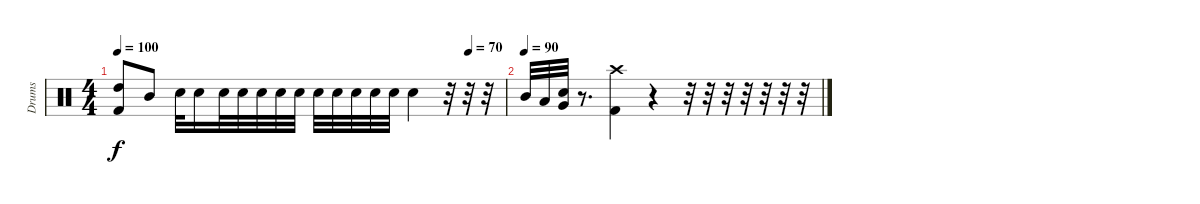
\track ("Drums" "Drums") {instrument percussion}
\staff {score}
\articulation defaults
\ts (4 4)
\tempo (70 0.90625)
\tempo 100
\clef neutral
\ks c
("Kick (hit) 2" "High Tom (hit)").8{dy f} "Mid Tom (hit)".8 "Electric Snare (hit)".32 "Electric Snare (hit)".16 "Electric Snare (hit)".32 "Electric Snare (hit)".32 "Electric Snare (hit)".32 "Electric Snare (hit)".32 "Electric Snare (hit)".32 "Electric Snare (hit)".32 "Electric Snare (hit)".32 "Electric Snare (hit)".32 "Electric Snare (hit)".32 "Electric Snare (hit)".32 "Electric Snare (hit)".4 r.32 r.32 r.32 |
\tempo 70
\tempo (90)
"Mid Tom (hit)".32 "Low Tom (hit)".32 ("Very Low Tom (hit)" "Electric Snare (hit)").32 r.8{d} ("Kick (hit) 2" "Crash high (hit)").4 r.4 r.32 r.32 r.32 r.32 r.32 r.32 r.32
